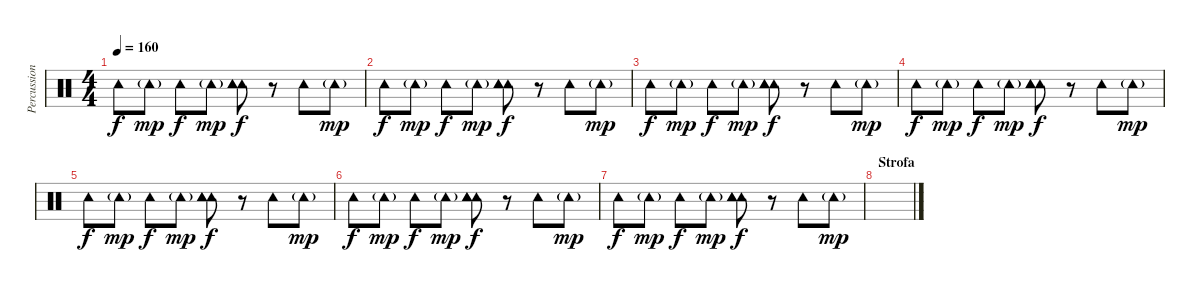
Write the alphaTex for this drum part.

\track ("Percussion" "Percussion") {instrument percussion}
\staff {score}
\articulation defaults
\ts (4 4)
\tempo 160
\clef neutral
\ks c "Tambourine (hit)".8{dy f} "Tambourine (hit)"{g}.8{dy mp} "Tambourine (hit)".8{dy f} "Tambourine (hit)"{g}.8{dy mp}
("Tambourine (hit)" "Tambourine (hit)" "Tambourine (hit)").8{dy f} r.8 "Tambourine (hit)".8 "Tambourine (hit)"{g}.8{dy mp} |
"Tambourine (hit)".8{dy f} "Tambourine (hit)"{g}.8{dy mp} "Tambourine (hit)".8{dy f} "Tambourine (hit)"{g}.8{dy mp} ("Tambourine (hit)" "Tambourine (hit)" "Tambourine (hit)").8{dy f} r.8 "Tambourine (hit)".8 "Tambourine (hit)"{g}.8{dy mp} |
"Tambourine (hit)".8{dy f} "Tambourine (hit)"{g}.8{dy mp} "Tambourine (hit)".8{dy f} "Tambourine (hit)"{g}.8{dy mp} ("Tambourine (hit)" "Tambourine (hit)" "Tambourine (hit)").8{dy f} r.8 "Tambourine (hit)".8 "Tambourine (hit)"{g}.8{dy mp} |
"Tambourine (hit)".8{dy f} "Tambourine (hit)"{g}.8{dy mp} "Tambourine (hit)".8{dy f} "Tambourine (hit)"{g}.8{dy mp} ("Tambourine (hit)" "Tambourine (hit)" "Tambourine (hit)").8{dy f} r.8 "Tambourine (hit)".8 "Tambourine (hit)"{g}.8{dy mp} |
"Tambourine (hit)".8{dy f} "Tambourine (hit)"{g}.8{dy mp} "Tambourine (hit)".8{dy f} "Tambourine (hit)"{g}.8{dy mp} ("Tambourine (hit)" "Tambourine (hit)" "Tambourine (hit)").8{dy f} r.8 "Tambourine (hit)".8 "Tambourine (hit)"{g}.8{dy mp} |
"Tambourine (hit)".8{dy f} "Tambourine (hit)"{g}.8{dy mp} "Tambourine (hit)".8{dy f} "Tambourine (hit)"{g}.8{dy mp} ("Tambourine (hit)" "Tambourine (hit)" "Tambourine (hit)").8{dy f} r.8 "Tambourine (hit)".8 "Tambourine (hit)"{g}.8{dy mp} |
"Tambourine (hit)".8{dy f} "Tambourine (hit)"{g}.8{dy mp} "Tambourine (hit)".8{dy f} "Tambourine (hit)"{g}.8{dy mp} ("Tambourine (hit)" "Tambourine (hit)" "Tambourine (hit)").8{dy f} r.8 "Tambourine (hit)".8 "Tambourine (hit)"{g}.8{dy mp} |
\section ("" "Strofa")
